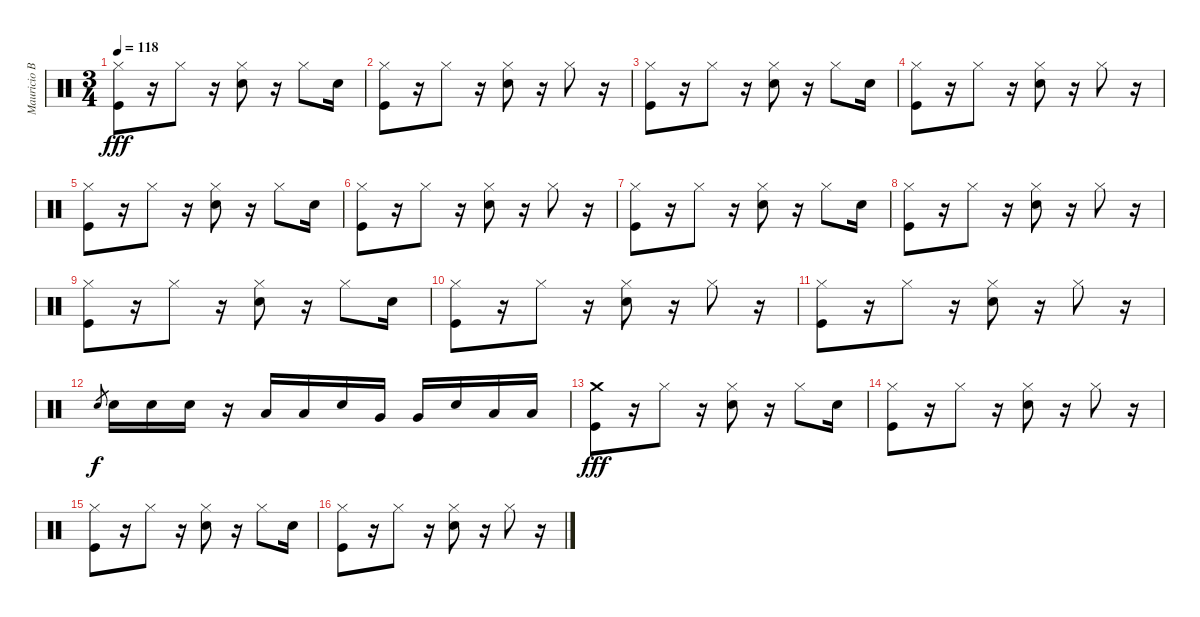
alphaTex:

\track ("Mauricio Basualto" "Mauricio B") {instrument percussion}
\staff {score}
\articulation defaults
\ts (3 4)
\tempo 118
\clef neutral
\ks c
("Hi-Hat (closed)" "Kick (hit)").8{dy fff} r.16 "Hi-Hat (closed)".8 r.16 ("Hi-Hat (closed)" "Snare (hit) 2").8 r.16 "Hi-Hat (closed)".8 "Snare (hit) 2".16 |
("Hi-Hat (closed)" "Kick (hit)").8 r.16 "Hi-Hat (closed)".8 r.16 ("Hi-Hat (closed)" "Snare (hit) 2").8 r.16 "Hi-Hat (closed)".8 r.16 |
("Hi-Hat (closed)" "Kick (hit)").8 r.16 "Hi-Hat (closed)".8 r.16 ("Hi-Hat (closed)" "Snare (hit) 2").8 r.16 "Hi-Hat (closed)".8 "Snare (hit) 2".16 |
("Hi-Hat (closed)" "Kick (hit)").8 r.16 "Hi-Hat (closed)".8 r.16 ("Hi-Hat (closed)" "Snare (hit) 2").8 r.16 "Hi-Hat (closed)".8 r.16 |
("Hi-Hat (closed)" "Kick (hit)").8 r.16 "Hi-Hat (closed)".8 r.16 ("Hi-Hat (closed)" "Snare (hit) 2").8 r.16 "Hi-Hat (closed)".8 "Snare (hit) 2".16 |
("Hi-Hat (closed)" "Kick (hit)").8 r.16 "Hi-Hat (closed)".8 r.16 ("Hi-Hat (closed)" "Snare (hit) 2").8 r.16 "Hi-Hat (closed)".8 r.16 |
("Hi-Hat (closed)" "Kick (hit)").8 r.16 "Hi-Hat (closed)".8 r.16 ("Hi-Hat (closed)" "Snare (hit) 2").8 r.16 "Hi-Hat (closed)".8 "Snare (hit) 2".16 |
("Hi-Hat (closed)" "Kick (hit)").8 r.16 "Hi-Hat (closed)".8 r.16 ("Hi-Hat (closed)" "Snare (hit) 2").8 r.16 "Hi-Hat (closed)".8 r.16 |
("Hi-Hat (closed)" "Kick (hit)").8 r.16 "Hi-Hat (closed)".8 r.16 ("Hi-Hat (closed)" "Snare (hit) 2").8 r.16 "Hi-Hat (closed)".8 "Snare (hit) 2".16 |
("Hi-Hat (closed)" "Kick (hit)").8 r.16 "Hi-Hat (closed)".8 r.16 ("Hi-Hat (closed)" "Snare (hit) 2").8 r.16 "Hi-Hat (closed)".8 r.16 |
("Hi-Hat (closed)" "Kick (hit)").8 r.16 "Hi-Hat (closed)".8 r.16 ("Hi-Hat (closed)" "Snare (hit) 2").8 r.16 "Hi-Hat (closed)".8 r.16 |
"Snare (hit) 2".8{gr dy f} "Snare (hit) 2".16 "Snare (hit) 2".16 "Snare (hit) 2".16 r.16 "Low Tom (hit)".16 "Low Tom (hit)".16 "Snare (hit) 2".16 "Very Low Tom (hit)".16 "Very Low Tom (hit)".16 "Snare (hit) 2".16 "Low Floor Tom (hit)".16 "Low Floor Tom (hit)".16 |
("Crash medium (hit)" "Kick (hit)").8{dy fff} r.16 "Hi-Hat (closed)".8 r.16 ("Hi-Hat (closed)" "Snare (hit) 2").8 r.16 "Hi-Hat (closed)".8 "Snare (hit) 2".16 |
("Hi-Hat (closed)" "Kick (hit)").8 r.16 "Hi-Hat (closed)".8 r.16 ("Hi-Hat (closed)" "Snare (hit) 2").8 r.16 "Hi-Hat (closed)".8 r.16 |
("Hi-Hat (closed)" "Kick (hit)").8 r.16 "Hi-Hat (closed)".8 r.16 ("Hi-Hat (closed)" "Snare (hit) 2").8 r.16 "Hi-Hat (closed)".8 "Snare (hit) 2".16 |
("Hi-Hat (closed)" "Kick (hit)").8 r.16 "Hi-Hat (closed)".8 r.16 ("Hi-Hat (closed)" "Snare (hit) 2").8 r.16 "Hi-Hat (closed)".8 r.16
